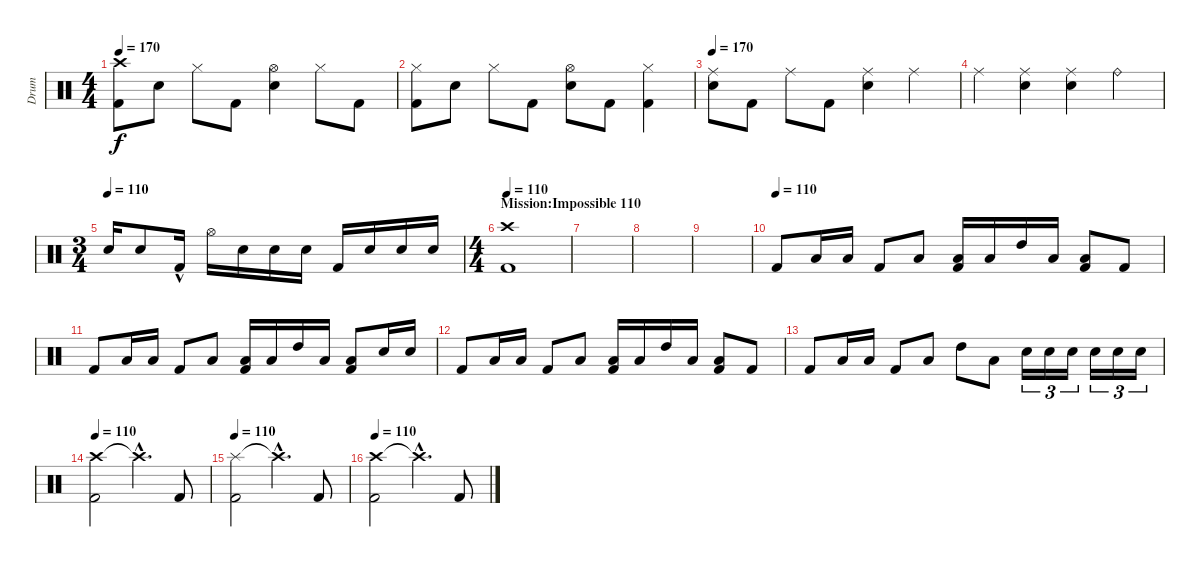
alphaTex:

\track ("Drum" "Drum") {instrument percussion}
\staff {score}
\articulation defaults
\ts (4 4)
\tempo 170
\clef neutral
\ks c
("Crash high (hit)" "Kick (hit) 2").8{dy f} "Electric Snare (hit)".8 "Hi-Hat (closed)".8 "Kick (hit) 2".8 ("Hi-Hat (open)" "Electric Snare (hit)").4 "Hi-Hat (closed)".8 "Kick (hit) 2".8 |
("Hi-Hat (closed)" "Kick (hit) 2").8 "Electric Snare (hit)".8 "Hi-Hat (closed)".8 "Kick (hit) 2".8 ("Hi-Hat (open)" "Electric Snare (hit)").8 "Kick (hit) 2".8 ("Hi-Hat (closed)" "Kick (hit) 2").4 |
\tempo 170
("Ride (middle)" "Electric Snare (hit)").8 "Kick (hit) 2".8 "Ride (middle)".8 "Kick (hit) 2".8 ("Ride (middle)" "Electric Snare (hit)").4 "Ride (middle)".4 |
"Ride (middle)".4 ("Ride (middle)" "Electric Snare (hit)").4 ("Ride (middle)" "Electric Snare (hit)").4 "Ride (bell)".4 |
\ts (3 4)
\tempo (110)
"Electric Snare (hit)".16 "Electric Snare (hit)".8 "Kick (hit) 2"{hac}.16 "Hi-Hat (open)".16 "Electric Snare (hit)".16 "Electric Snare (hit)".16 "Electric Snare (hit)".16 "Kick (hit) 2".16 "Electric Snare (hit)".16 "Electric Snare (hit)".16 "Electric Snare (hit)".16 |
\ts (4 4)
\section ("" "Mission:Impossible 110")
\tempo 110
("Crash high (hit)" "Kick (hit) 2").1 |
|
|
|
\tempo (110)
"Kick (hit) 2".8 "Low Floor Tom (hit)".16 "Low Floor Tom (hit)".16 "Kick (hit) 2".8 "Low Tom (hit)".8 ("Low Floor Tom (hit)" "Kick (hit) 2").16 "Low Tom (hit)".16 "High Tom (hit)".16 "Low Floor Tom (hit)".16 ("Low Floor Tom (hit)" "Kick (hit) 2").8 "Kick (hit) 2".8 |
"Kick (hit) 2".8 "Low Floor Tom (hit)".16 "Low Floor Tom (hit)".16 "Kick (hit) 2".8 "Low Tom (hit)".8 ("Low Floor Tom (hit)" "Kick (hit) 2").16 "Low Tom (hit)".16 "High Tom (hit)".16 "Low Floor Tom (hit)".16 ("Low Floor Tom (hit)" "Kick (hit) 2").8 "Electric Snare (hit)".16 "Electric Snare (hit)".16 |
"Kick (hit) 2".8 "Low Floor Tom (hit)".16 "Low Floor Tom (hit)".16 "Kick (hit) 2".8 "Low Tom (hit)".8 ("Low Floor Tom (hit)" "Kick (hit) 2").16 "Low Tom (hit)".16 "High Tom (hit)".16 "Low Floor Tom (hit)".16 ("Low Floor Tom (hit)" "Kick (hit) 2").8 "Kick (hit) 2".8 |
"Kick (hit) 2".8 "Low Floor Tom (hit)".16 "Low Floor Tom (hit)".16 "Kick (hit) 2".8 "Low Tom (hit)".8 "High Tom (hit)".8 "Low Floor Tom (hit)".8 "Electric Snare (hit)".16{tu (3 2)} "Electric Snare (hit)".16{tu (3 2)} "Electric Snare (hit)".16{tu (3 2)} "Electric Snare (hit)".16{tu (3 2)} "Electric Snare (hit)".16{tu (3 2)} "Electric Snare (hit)".16{tu (3 2)} |
\tempo 110
("Crash high (hit)" "Kick (hit) 2").2 "Crash high (hit)"{hac t}.4{d} "Kick (hit) 2".8 |
\tempo 110
("Splash (hit)" "Kick (hit) 2").2 "Crash high (hit)"{hac t}.4{d} "Kick (hit) 2".8 |
\tempo 110
("Crash high (hit)" "Kick (hit) 2").2 "Crash high (hit)"{hac t}.4{d} "Kick (hit) 2".8
